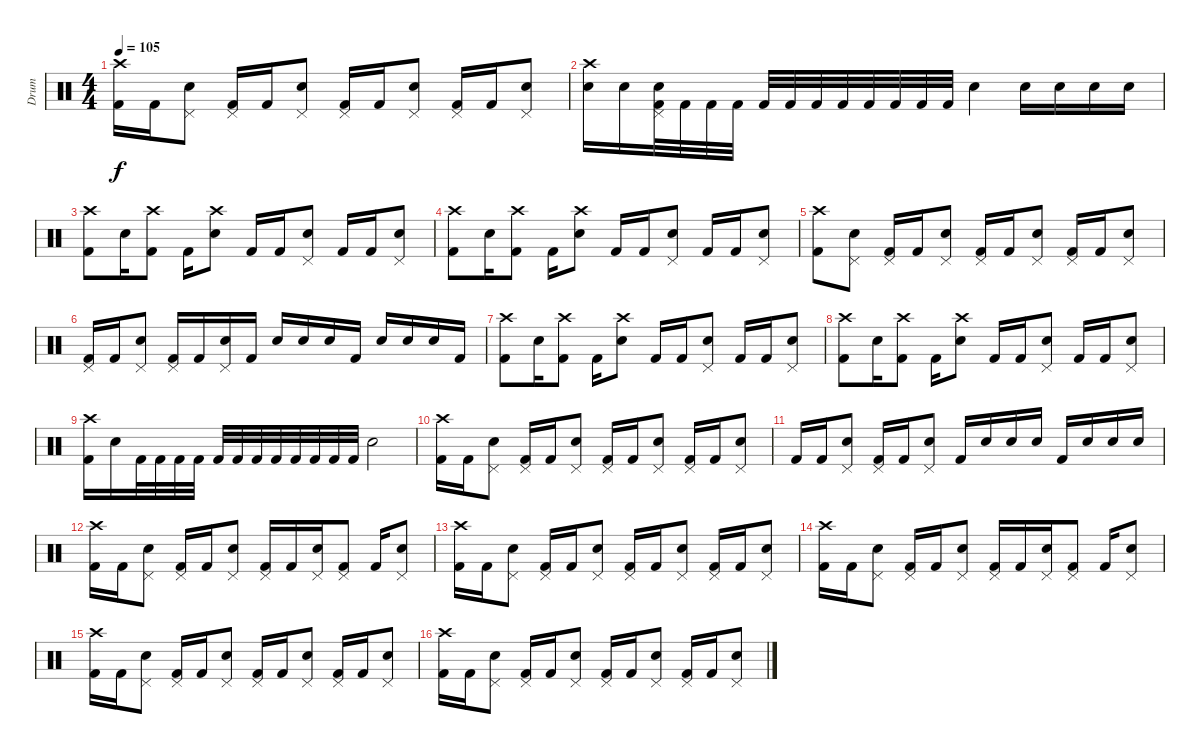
\track ("Drum" "Drum") {instrument percussion}
\staff {score}
\articulation defaults
\ts (4 4)
\tempo 105
\clef neutral
\ks c
("Crash high (hit)" "Kick (hit) 2").16{dy f} "Kick (hit) 2".16 ("Pedal Hi-Hat (hit)" "Snare (hit) 2").8 ("Pedal Hi-Hat (hit)" "Kick (hit) 2").16 "Kick (hit) 2".16 ("Pedal Hi-Hat (hit)" "Snare (hit) 2").8 ("Pedal Hi-Hat (hit)" "Kick (hit) 2").16 "Kick (hit) 2".16 ("Pedal Hi-Hat (hit)" "Snare (hit) 2").8 ("Pedal Hi-Hat (hit)" "Kick (hit) 2").16 "Kick (hit) 2".16 ("Pedal Hi-Hat (hit)" "Snare (hit) 2").8 |
("Crash high (hit)" "Snare (hit) 2").16 "Snare (hit) 2".16 ("Pedal Hi-Hat (hit)" "Snare (hit) 2" "Kick (hit) 2").32 "Kick (hit) 2".32 "Kick (hit) 2".32 "Kick (hit) 2".32 "Kick (hit) 2".32 "Kick (hit) 2".32 "Kick (hit) 2".32 "Kick (hit) 2".32 "Kick (hit) 2".32 "Kick (hit) 2".32 "Kick (hit) 2".32 "Kick (hit) 2".32 "Snare (hit) 2".4 "Snare (hit) 2".16 "Snare (hit) 2".16 "Snare (hit) 2".16 "Snare (hit) 2".16 |
("Crash high (hit)" "Kick (hit) 2").8 "Snare (hit) 2".16 ("Crash high (hit)" "Kick (hit) 2").8 "Kick (hit) 2".16 ("Crash high (hit)" "Snare (hit) 2").8 "Kick (hit) 2".16 "Kick (hit) 2".16 ("Pedal Hi-Hat (hit)" "Snare (hit) 2").8 "Kick (hit) 2".16 "Kick (hit) 2".16 ("Pedal Hi-Hat (hit)" "Snare (hit) 2").8 |
("Crash high (hit)" "Kick (hit) 2").8 "Snare (hit) 2".16 ("Crash high (hit)" "Kick (hit) 2").8 "Kick (hit) 2".16 ("Crash high (hit)" "Snare (hit) 2").8 "Kick (hit) 2".16 "Kick (hit) 2".16 ("Pedal Hi-Hat (hit)" "Snare (hit) 2").8 "Kick (hit) 2".16 "Kick (hit) 2".16 ("Pedal Hi-Hat (hit)" "Snare (hit) 2").8 |
("Crash high (hit)" "Kick (hit) 2").8 ("Pedal Hi-Hat (hit)" "Snare (hit) 2").8 ("Pedal Hi-Hat (hit)" "Kick (hit) 2").16 "Kick (hit) 2".16 ("Pedal Hi-Hat (hit)" "Snare (hit) 2").8 ("Pedal Hi-Hat (hit)" "Kick (hit) 2").16 "Kick (hit) 2".16 ("Pedal Hi-Hat (hit)" "Snare (hit) 2").8 ("Pedal Hi-Hat (hit)" "Kick (hit) 2").16 "Kick (hit) 2".16 ("Pedal Hi-Hat (hit)" "Snare (hit) 2").8 |
("Pedal Hi-Hat (hit)" "Kick (hit) 2").16 "Kick (hit) 2".16 ("Pedal Hi-Hat (hit)" "Snare (hit) 2").8 ("Pedal Hi-Hat (hit)" "Kick (hit) 2").16 "Kick (hit) 2".16 ("Pedal Hi-Hat (hit)" "Snare (hit) 2").16 "Kick (hit) 2".16 "Snare (hit) 2".16 "Snare (hit) 2".16 "Snare (hit) 2".16 "Kick (hit) 2".16 "Snare (hit) 2".16 "Snare (hit) 2".16 "Snare (hit) 2".16 "Kick (hit) 2".16 |
("Crash high (hit)" "Kick (hit) 2").8 "Snare (hit) 2".16 ("Crash high (hit)" "Kick (hit) 2").8 "Kick (hit) 2".16 ("Crash high (hit)" "Snare (hit) 2").8 "Kick (hit) 2".16 "Kick (hit) 2".16 ("Pedal Hi-Hat (hit)" "Snare (hit) 2").8 "Kick (hit) 2".16 "Kick (hit) 2".16 ("Pedal Hi-Hat (hit)" "Snare (hit) 2").8 |
("Crash high (hit)" "Kick (hit) 2").8 "Snare (hit) 2".16 ("Crash high (hit)" "Kick (hit) 2").8 "Kick (hit) 2".16 ("Crash high (hit)" "Snare (hit) 2").8 "Kick (hit) 2".16 "Kick (hit) 2".16 ("Pedal Hi-Hat (hit)" "Snare (hit) 2").8 "Kick (hit) 2".16 "Kick (hit) 2".16 ("Pedal Hi-Hat (hit)" "Snare (hit) 2").8 |
("Crash high (hit)" "Kick (hit) 2").16 "Snare (hit) 2".16 "Kick (hit) 2".32 "Kick (hit) 2".32 "Kick (hit) 2".32 "Kick (hit) 2".32 "Kick (hit) 2".32 "Kick (hit) 2".32 "Kick (hit) 2".32 "Kick (hit) 2".32 "Kick (hit) 2".32 "Kick (hit) 2".32 "Kick (hit) 2".32 "Kick (hit) 2".32 "Snare (hit) 2".2 |
("Crash high (hit)" "Kick (hit) 2").16 "Kick (hit) 2".16 ("Pedal Hi-Hat (hit)" "Snare (hit) 2").8 ("Pedal Hi-Hat (hit)" "Kick (hit) 2").16 "Kick (hit) 2".16 ("Pedal Hi-Hat (hit)" "Snare (hit) 2").8 ("Pedal Hi-Hat (hit)" "Kick (hit) 2").16 "Kick (hit) 2".16 ("Pedal Hi-Hat (hit)" "Snare (hit) 2").8 ("Pedal Hi-Hat (hit)" "Kick (hit) 2").16 "Kick (hit) 2".16 ("Pedal Hi-Hat (hit)" "Snare (hit) 2").8 |
"Kick (hit) 2".16 "Kick (hit) 2".16 ("Pedal Hi-Hat (hit)" "Snare (hit) 2").8 ("Pedal Hi-Hat (hit)" "Kick (hit) 2").16 "Kick (hit) 2".16 ("Pedal Hi-Hat (hit)" "Snare (hit) 2").8 "Kick (hit) 2".16 "Snare (hit) 2".16 "Snare (hit) 2".16 "Snare (hit) 2".16 "Kick (hit) 2".16 "Snare (hit) 2".16 "Snare (hit) 2".16 "Snare (hit) 2".16 |
("Crash high (hit)" "Kick (hit) 2").16 "Kick (hit) 2".16 ("Pedal Hi-Hat (hit)" "Snare (hit) 2").8 ("Pedal Hi-Hat (hit)" "Kick (hit) 2").16 "Kick (hit) 2".16 ("Pedal Hi-Hat (hit)" "Snare (hit) 2").8 ("Pedal Hi-Hat (hit)" "Kick (hit) 2").16 "Kick (hit) 2".16 ("Pedal Hi-Hat (hit)" "Snare (hit) 2").16 ("Pedal Hi-Hat (hit)" "Kick (hit) 2").8 "Kick (hit) 2".16 ("Pedal Hi-Hat (hit)" "Snare (hit) 2").8 |
("Crash high (hit)" "Kick (hit) 2").16 "Kick (hit) 2".16 ("Pedal Hi-Hat (hit)" "Snare (hit) 2").8 ("Pedal Hi-Hat (hit)" "Kick (hit) 2").16 "Kick (hit) 2".16 ("Pedal Hi-Hat (hit)" "Snare (hit) 2").8 ("Pedal Hi-Hat (hit)" "Kick (hit) 2").16 "Kick (hit) 2".16 ("Pedal Hi-Hat (hit)" "Snare (hit) 2").8 ("Pedal Hi-Hat (hit)" "Kick (hit) 2").16 "Kick (hit) 2".16 ("Pedal Hi-Hat (hit)" "Snare (hit) 2").8 |
("Crash high (hit)" "Kick (hit) 2").16 "Kick (hit) 2".16 ("Pedal Hi-Hat (hit)" "Snare (hit) 2").8 ("Pedal Hi-Hat (hit)" "Kick (hit) 2").16 "Kick (hit) 2".16 ("Pedal Hi-Hat (hit)" "Snare (hit) 2").8 ("Pedal Hi-Hat (hit)" "Kick (hit) 2").16 "Kick (hit) 2".16 ("Pedal Hi-Hat (hit)" "Snare (hit) 2").16 ("Pedal Hi-Hat (hit)" "Kick (hit) 2").8 "Kick (hit) 2".16 ("Pedal Hi-Hat (hit)" "Snare (hit) 2").8 |
("Crash high (hit)" "Kick (hit) 2").16 "Kick (hit) 2".16 ("Pedal Hi-Hat (hit)" "Snare (hit) 2").8 ("Pedal Hi-Hat (hit)" "Kick (hit) 2").16 "Kick (hit) 2".16 ("Pedal Hi-Hat (hit)" "Snare (hit) 2").8 ("Pedal Hi-Hat (hit)" "Kick (hit) 2").16 "Kick (hit) 2".16 ("Pedal Hi-Hat (hit)" "Snare (hit) 2").8 ("Pedal Hi-Hat (hit)" "Kick (hit) 2").16 "Kick (hit) 2".16 ("Pedal Hi-Hat (hit)" "Snare (hit) 2").8 |
("Crash high (hit)" "Kick (hit) 2").16 "Kick (hit) 2".16 ("Pedal Hi-Hat (hit)" "Snare (hit) 2").8 ("Pedal Hi-Hat (hit)" "Kick (hit) 2").16 "Kick (hit) 2".16 ("Pedal Hi-Hat (hit)" "Snare (hit) 2").8 ("Pedal Hi-Hat (hit)" "Kick (hit) 2").16 "Kick (hit) 2".16 ("Pedal Hi-Hat (hit)" "Snare (hit) 2").8 ("Pedal Hi-Hat (hit)" "Kick (hit) 2").16 "Kick (hit) 2".16 ("Pedal Hi-Hat (hit)" "Snare (hit) 2").8
